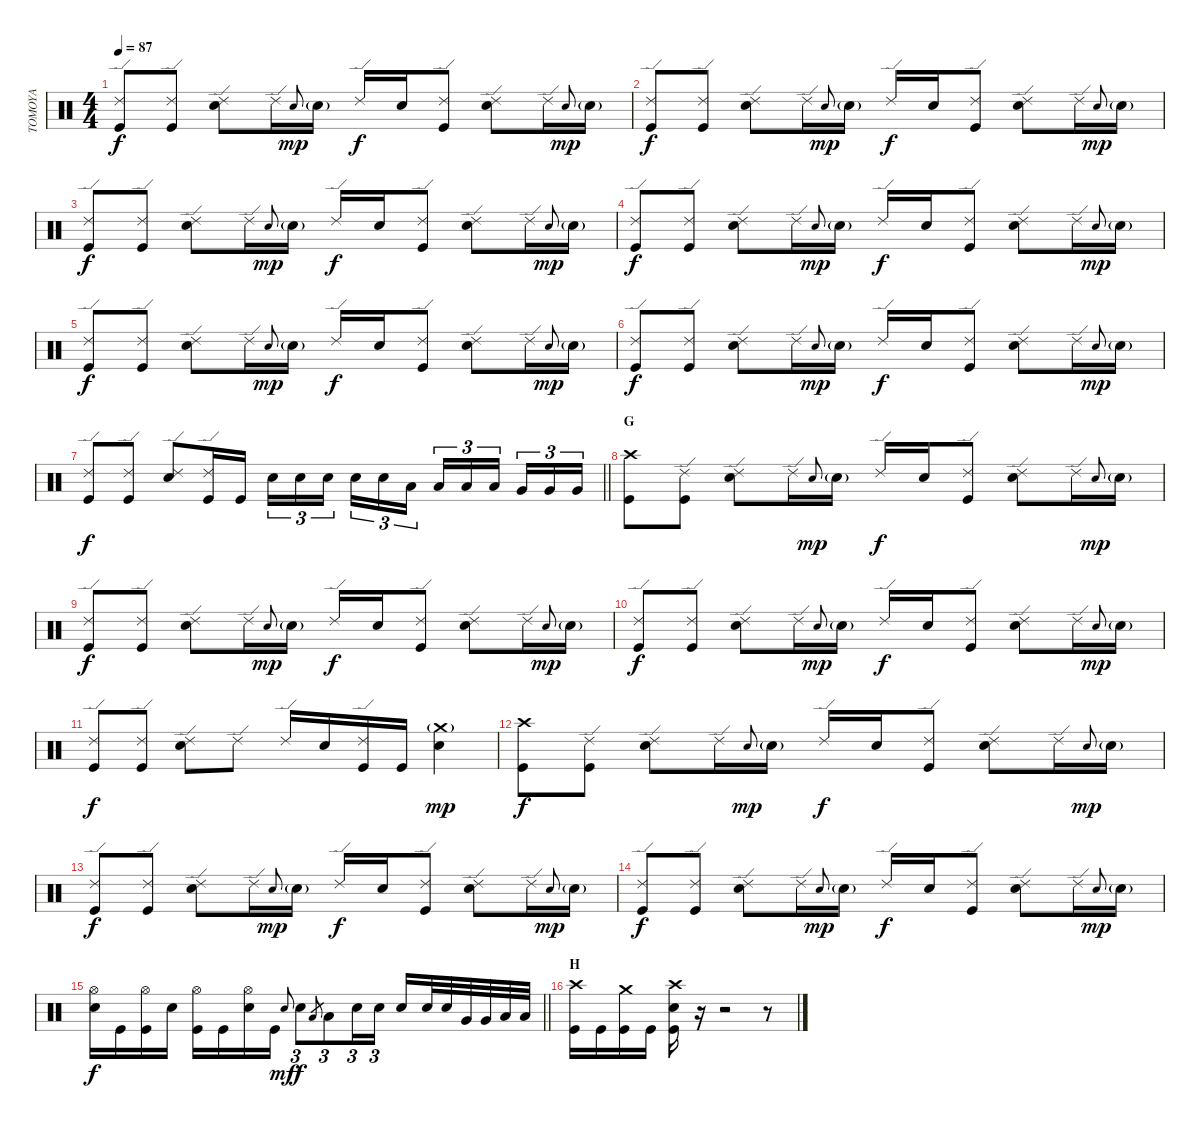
\track ("TOMOYA" "TOMOYA") {instrument percussion}
\staff {score}
\articulation defaults
\ts (4 4)
\tempo 87
\clef neutral
\ks c
("Kick (hit)" "Ride (edge) 2").8{dy f} ("Kick (hit)" "Ride (edge) 2").8 ("Snare (hit) 2" "Ride (edge) 2").8 "Ride (edge) 2".16 "Snare (hit) 2".8{gr onbeat dy mp} "Snare (hit) 2"{g}.16 "Ride (edge) 2".16{dy f} "Snare (hit) 2".16 ("Kick (hit)" "Ride (edge) 2").8 ("Snare (hit) 2" "Ride (edge) 2").8 "Ride (edge) 2".16 "Snare (hit) 2".8{gr onbeat dy mp} "Snare (hit) 2"{g}.16 |
("Kick (hit)" "Ride (edge) 2").8{dy f} ("Kick (hit)" "Ride (edge) 2").8 ("Snare (hit) 2" "Ride (edge) 2").8 "Ride (edge) 2".16 "Snare (hit) 2".8{gr onbeat dy mp} "Snare (hit) 2"{g}.16 "Ride (edge) 2".16{dy f} "Snare (hit) 2".16 ("Kick (hit)" "Ride (edge) 2").8 ("Snare (hit) 2" "Ride (edge) 2").8 "Ride (edge) 2".16 "Snare (hit) 2".8{gr onbeat dy mp} "Snare (hit) 2"{g}.16 |
("Kick (hit)" "Ride (edge) 2").8{dy f} ("Kick (hit)" "Ride (edge) 2").8 ("Snare (hit) 2" "Ride (edge) 2").8 "Ride (edge) 2".16 "Snare (hit) 2".8{gr onbeat dy mp} "Snare (hit) 2"{g}.16 "Ride (edge) 2".16{dy f} "Snare (hit) 2".16 ("Kick (hit)" "Ride (edge) 2").8 ("Snare (hit) 2" "Ride (edge) 2").8 "Ride (edge) 2".16 "Snare (hit) 2".8{gr onbeat dy mp} "Snare (hit) 2"{g}.16 |
("Kick (hit)" "Ride (edge) 2").8{dy f} ("Kick (hit)" "Ride (edge) 2").8 ("Snare (hit) 2" "Ride (edge) 2").8 "Ride (edge) 2".16 "Snare (hit) 2".8{gr onbeat dy mp} "Snare (hit) 2"{g}.16 "Ride (edge) 2".16{dy f} "Snare (hit) 2".16 ("Kick (hit)" "Ride (edge) 2").8 ("Snare (hit) 2" "Ride (edge) 2").8 "Ride (edge) 2".16 "Snare (hit) 2".8{gr onbeat dy mp} "Snare (hit) 2"{g}.16 |
("Kick (hit)" "Ride (edge) 2").8{dy f} ("Kick (hit)" "Ride (edge) 2").8 ("Snare (hit) 2" "Ride (edge) 2").8 "Ride (edge) 2".16 "Snare (hit) 2".8{gr onbeat dy mp} "Snare (hit) 2"{g}.16 "Ride (edge) 2".16{dy f} "Snare (hit) 2".16 ("Kick (hit)" "Ride (edge) 2").8 ("Snare (hit) 2" "Ride (edge) 2").8 "Ride (edge) 2".16 "Snare (hit) 2".8{gr onbeat dy mp} "Snare (hit) 2"{g}.16 |
("Kick (hit)" "Ride (edge) 2").8{dy f} ("Kick (hit)" "Ride (edge) 2").8 ("Snare (hit) 2" "Ride (edge) 2").8 "Ride (edge) 2".16 "Snare (hit) 2".8{gr onbeat dy mp} "Snare (hit) 2"{g}.16 "Ride (edge) 2".16{dy f} "Snare (hit) 2".16 ("Kick (hit)" "Ride (edge) 2").8 ("Snare (hit) 2" "Ride (edge) 2").8 "Ride (edge) 2".16 "Snare (hit) 2".8{gr onbeat dy mp} "Snare (hit) 2"{g}.16 |
\barLineRight lightlight
("Kick (hit)" "Ride (edge) 2").8{dy f} ("Kick (hit)" "Ride (edge) 2").8 ("Snare (hit) 2" "Ride (edge) 2").8 ("Kick (hit)" "Ride (edge) 2").16 "Kick (hit)".16 "Snare (hit) 2".16{tu (3 2)} "Snare (hit) 2".16{tu (3 2)} "Snare (hit) 2".16{tu (3 2) beam splitsecondary} "Snare (hit) 2".16{tu (3 2)} "Snare (hit) 2".16{tu (3 2)} "Low Tom (hit)".16{tu (3 2)} "Low Tom (hit)".16{tu (3 2)} "Low Tom (hit)".16{tu (3 2)} "Low Tom (hit)".16{tu (3 2) beam splitsecondary} "Very Low Tom (hit)".16{tu (3 2)} "Very Low Tom (hit)".16{tu (3 2)} "Very Low Tom (hit)".16{tu (3 2)} |
\section ("" "G")
("Kick (hit)" "Crash high (hit)").8 ("Kick (hit)" "Ride (edge) 2").8 ("Snare (hit) 2" "Ride (edge) 2").8 "Ride (edge) 2".16 "Snare (hit) 2".8{gr onbeat dy mp} "Snare (hit) 2"{g}.16 "Ride (edge) 2".16{dy f} "Snare (hit) 2".16 ("Kick (hit)" "Ride (edge) 2").8 ("Snare (hit) 2" "Ride (edge) 2").8 "Ride (edge) 2".16 "Snare (hit) 2".8{gr onbeat dy mp} "Snare (hit) 2"{g}.16 |
("Kick (hit)" "Ride (edge) 2").8{dy f} ("Kick (hit)" "Ride (edge) 2").8 ("Snare (hit) 2" "Ride (edge) 2").8 "Ride (edge) 2".16 "Snare (hit) 2".8{gr onbeat dy mp} "Snare (hit) 2"{g}.16 "Ride (edge) 2".16{dy f} "Snare (hit) 2".16 ("Kick (hit)" "Ride (edge) 2").8 ("Snare (hit) 2" "Ride (edge) 2").8 "Ride (edge) 2".16 "Snare (hit) 2".8{gr onbeat dy mp} "Snare (hit) 2"{g}.16 |
("Kick (hit)" "Ride (edge) 2").8{dy f} ("Kick (hit)" "Ride (edge) 2").8 ("Snare (hit) 2" "Ride (edge) 2").8 "Ride (edge) 2".16 "Snare (hit) 2".8{gr onbeat dy mp} "Snare (hit) 2"{g}.16 "Ride (edge) 2".16{dy f} "Snare (hit) 2".16 ("Kick (hit)" "Ride (edge) 2").8 ("Snare (hit) 2" "Ride (edge) 2").8 "Ride (edge) 2".16 "Snare (hit) 2".8{gr onbeat dy mp} "Snare (hit) 2"{g}.16 |
("Kick (hit)" "Ride (edge) 2").8{dy f} ("Kick (hit)" "Ride (edge) 2").8 ("Snare (hit) 2" "Ride (edge) 2").8 "Ride (edge) 2".8 "Ride (edge) 2".16 "Snare (hit) 2".16 ("Kick (hit)" "Ride (edge) 2").16 "Kick (hit)".16 ("Snare (hit) 2" "Crash medium (hit)"{g}).4{dy mp} |
("Kick (hit)" "Crash high (hit)").8{dy f} ("Kick (hit)" "Ride (edge) 2").8 ("Snare (hit) 2" "Ride (edge) 2").8 "Ride (edge) 2".16 "Snare (hit) 2".8{gr onbeat dy mp} "Snare (hit) 2"{g}.16 "Ride (edge) 2".16{dy f} "Snare (hit) 2".16 ("Kick (hit)" "Ride (edge) 2").8 ("Snare (hit) 2" "Ride (edge) 2").8 "Ride (edge) 2".16 "Snare (hit) 2".8{gr onbeat dy mp} "Snare (hit) 2"{g}.16 |
("Kick (hit)" "Ride (edge) 2").8{dy f} ("Kick (hit)" "Ride (edge) 2").8 ("Snare (hit) 2" "Ride (edge) 2").8 "Ride (edge) 2".16 "Snare (hit) 2".8{gr onbeat dy mp} "Snare (hit) 2"{g}.16 "Ride (edge) 2".16{dy f} "Snare (hit) 2".16 ("Kick (hit)" "Ride (edge) 2").8 ("Snare (hit) 2" "Ride (edge) 2").8 "Ride (edge) 2".16 "Snare (hit) 2".8{gr onbeat dy mp} "Snare (hit) 2"{g}.16 |
("Kick (hit)" "Ride (edge) 2").8{dy f} ("Kick (hit)" "Ride (edge) 2").8 ("Snare (hit) 2" "Ride (edge) 2").8 "Ride (edge) 2".16 "Snare (hit) 2".8{gr onbeat dy mp} "Snare (hit) 2"{g}.16 "Ride (edge) 2".16{dy f} "Snare (hit) 2".16 ("Kick (hit)" "Ride (edge) 2").8 ("Snare (hit) 2" "Ride (edge) 2").8 "Ride (edge) 2".16 "Snare (hit) 2".8{gr onbeat dy mp} "Snare (hit) 2"{g}.16 |
\barLineRight lightlight
("Snare (hit) 2" "Hi-Hat (open)").16{dy f} "Kick (hit)".16 ("Kick (hit)" "Hi-Hat (open)").16 "Snare (hit) 2".16 ("Kick (hit)" "Hi-Hat (open)").16 "Kick (hit)".16 ("Snare (hit) 2" "Hi-Hat (open)").16 "Kick (hit)".16 "Snare (hit) 2".8{gr onbeat dy mf} "Snare (hit) 2".8{tu (3 2) dy f} "Low Tom (hit)".8{gr} "Low Tom (hit)".8{tu (3 2)} "Snare (hit) 2".16{tu (3 2)} "Snare (hit) 2".16{tu (3 2)} "Snare (hit) 2".16 "Snare (hit) 2".32 "Snare (hit) 2".32 "Very Low Tom (hit)".32 "Very Low Tom (hit)".32 "Low Floor Tom (hit)".32 "Low Floor Tom (hit)".32 |
\section ("" "H")
("Kick (hit)" "Crash high (hit)").16 "Kick (hit)".16 ("Kick (hit)" "Crash medium (hit)").16 "Kick (hit)".16 ("Kick (hit)" "Snare (hit) 2" "Crash high (hit)").16 r.16 r.2 r.8
